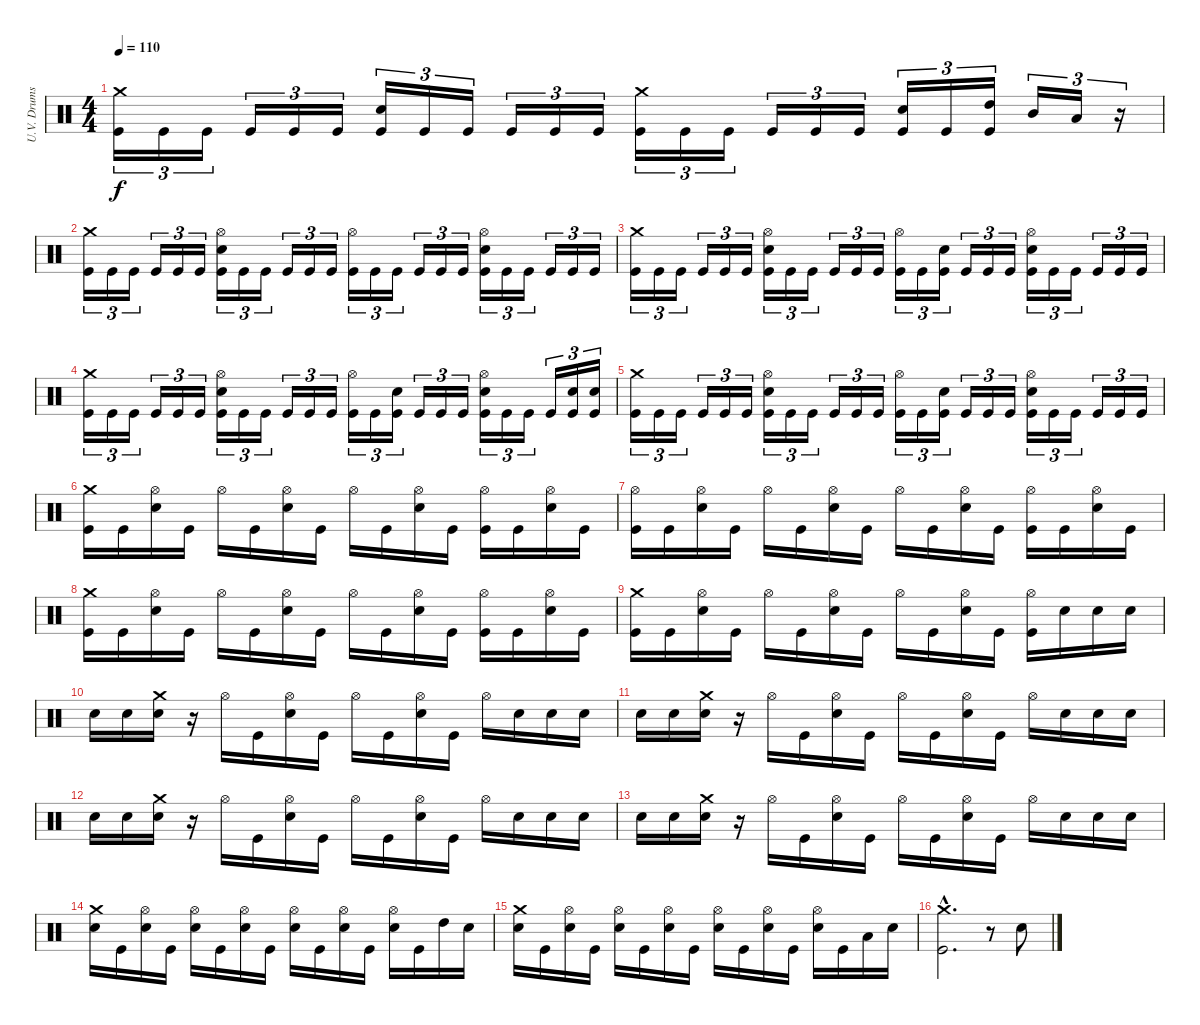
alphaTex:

\track ("U.V. Drums" "U.V. Drums") {instrument percussion}
\staff {score}
\articulation defaults
\ts (4 4)
\tempo 110
\clef neutral
\ks c
("Crash medium (hit)" "Kick (hit)").16{tu (3 2) dy f} "Kick (hit)".16{tu (3 2)} "Kick (hit)".16{tu (3 2)} "Kick (hit)".16{tu (3 2)} "Kick (hit)".16{tu (3 2)} "Kick (hit)".16{tu (3 2)} ("Electric Snare (hit)" "Kick (hit)").16{tu (3 2)} "Kick (hit)".16{tu (3 2)} "Kick (hit)".16{tu (3 2)} "Kick (hit)".16{tu (3 2)} "Kick (hit)".16{tu (3 2)} "Kick (hit)".16{tu (3 2)} ("Crash medium (hit)" "Kick (hit)").16{tu (3 2)} "Kick (hit)".16{tu (3 2)} "Kick (hit)".16{tu (3 2)} "Kick (hit)".16{tu (3 2)} "Kick (hit)".16{tu (3 2)} "Kick (hit)".16{tu (3 2)} ("Electric Snare (hit)" "Kick (hit)").16{tu (3 2)} "Kick (hit)".16{tu (3 2)} ("High Tom (hit)" "Kick (hit)").16{tu (3 2)} "Mid Tom (hit)".16{tu (3 2)} "Low Tom (hit)".16{tu (3 2)} r.16{tu (3 2)} |
("Crash medium (hit)" "Kick (hit)").16{tu (3 2)} "Kick (hit)".16{tu (3 2)} "Kick (hit)".16{tu (3 2)} "Kick (hit)".16{tu (3 2)} "Kick (hit)".16{tu (3 2)} "Kick (hit)".16{tu (3 2)} ("Hi-Hat (open)" "Electric Snare (hit)" "Kick (hit)").16{tu (3 2)} "Kick (hit)".16{tu (3 2)} "Kick (hit)".16{tu (3 2)} "Kick (hit)".16{tu (3 2)} "Kick (hit)".16{tu (3 2)} "Kick (hit)".16{tu (3 2)} ("Hi-Hat (open)" "Kick (hit)").16{tu (3 2)} "Kick (hit)".16{tu (3 2)} "Kick (hit)".16{tu (3 2)} "Kick (hit)".16{tu (3 2)} "Kick (hit)".16{tu (3 2)} "Kick (hit)".16{tu (3 2)} ("Hi-Hat (open)" "Electric Snare (hit)" "Kick (hit)").16{tu (3 2)} "Kick (hit)".16{tu (3 2)} "Kick (hit)".16{tu (3 2)} "Kick (hit)".16{tu (3 2)} "Kick (hit)".16{tu (3 2)} "Kick (hit)".16{tu (3 2)} |
("Crash medium (hit)" "Kick (hit)").16{tu (3 2)} "Kick (hit)".16{tu (3 2)} "Kick (hit)".16{tu (3 2)} "Kick (hit)".16{tu (3 2)} "Kick (hit)".16{tu (3 2)} "Kick (hit)".16{tu (3 2)} ("Hi-Hat (open)" "Electric Snare (hit)" "Kick (hit)").16{tu (3 2)} "Kick (hit)".16{tu (3 2)} "Kick (hit)".16{tu (3 2)} "Kick (hit)".16{tu (3 2)} "Kick (hit)".16{tu (3 2)} "Kick (hit)".16{tu (3 2)} ("Hi-Hat (open)" "Kick (hit)").16{tu (3 2)} "Kick (hit)".16{tu (3 2)} ("Electric Snare (hit)" "Kick (hit)").16{tu (3 2)} "Kick (hit)".16{tu (3 2)} "Kick (hit)".16{tu (3 2)} "Kick (hit)".16{tu (3 2)} ("Hi-Hat (open)" "Electric Snare (hit)" "Kick (hit)").16{tu (3 2)} "Kick (hit)".16{tu (3 2)} "Kick (hit)".16{tu (3 2)} "Kick (hit)".16{tu (3 2)} "Kick (hit)".16{tu (3 2)} "Kick (hit)".16{tu (3 2)} |
("Crash medium (hit)" "Kick (hit)").16{tu (3 2)} "Kick (hit)".16{tu (3 2)} "Kick (hit)".16{tu (3 2)} "Kick (hit)".16{tu (3 2)} "Kick (hit)".16{tu (3 2)} "Kick (hit)".16{tu (3 2)} ("Hi-Hat (open)" "Electric Snare (hit)" "Kick (hit)").16{tu (3 2)} "Kick (hit)".16{tu (3 2)} "Kick (hit)".16{tu (3 2)} "Kick (hit)".16{tu (3 2)} "Kick (hit)".16{tu (3 2)} "Kick (hit)".16{tu (3 2)} ("Hi-Hat (open)" "Kick (hit)").16{tu (3 2)} "Kick (hit)".16{tu (3 2)} ("Electric Snare (hit)" "Kick (hit)").16{tu (3 2)} "Kick (hit)".16{tu (3 2)} "Kick (hit)".16{tu (3 2)} "Kick (hit)".16{tu (3 2)} ("Hi-Hat (open)" "Electric Snare (hit)" "Kick (hit)").16{tu (3 2)} "Kick (hit)".16{tu (3 2)} "Kick (hit)".16{tu (3 2)} "Kick (hit)".16{tu (3 2)} ("Electric Snare (hit)" "Kick (hit)").16{tu (3 2)} ("Electric Snare (hit)" "Kick (hit)").16{tu (3 2)} |
("Crash medium (hit)" "Kick (hit)").16{tu (3 2)} "Kick (hit)".16{tu (3 2)} "Kick (hit)".16{tu (3 2)} "Kick (hit)".16{tu (3 2)} "Kick (hit)".16{tu (3 2)} "Kick (hit)".16{tu (3 2)} ("Hi-Hat (open)" "Electric Snare (hit)" "Kick (hit)").16{tu (3 2)} "Kick (hit)".16{tu (3 2)} "Kick (hit)".16{tu (3 2)} "Kick (hit)".16{tu (3 2)} "Kick (hit)".16{tu (3 2)} "Kick (hit)".16{tu (3 2)} ("Hi-Hat (open)" "Kick (hit)").16{tu (3 2)} "Kick (hit)".16{tu (3 2)} ("Electric Snare (hit)" "Kick (hit)").16{tu (3 2)} "Kick (hit)".16{tu (3 2)} "Kick (hit)".16{tu (3 2)} "Kick (hit)".16{tu (3 2)} ("Hi-Hat (open)" "Electric Snare (hit)" "Kick (hit)").16{tu (3 2)} "Kick (hit)".16{tu (3 2)} "Kick (hit)".16{tu (3 2)} "Kick (hit)".16{tu (3 2)} "Kick (hit)".16{tu (3 2)} "Kick (hit)".16{tu (3 2)} |
("Crash medium (hit)" "Kick (hit)").16 "Kick (hit)".16 ("Hi-Hat (open)" "Electric Snare (hit)").16 "Kick (hit)".16 "Hi-Hat (open)".16 "Kick (hit)".16 ("Hi-Hat (open)" "Electric Snare (hit)").16 "Kick (hit)".16 "Hi-Hat (open)".16 "Kick (hit)".16 ("Hi-Hat (open)" "Electric Snare (hit)").16 "Kick (hit)".16 ("Hi-Hat (open)" "Kick (hit)").16 "Kick (hit)".16 ("Hi-Hat (open)" "Electric Snare (hit)").16 "Kick (hit)".16 |
("Hi-Hat (open)" "Kick (hit)").16 "Kick (hit)".16 ("Hi-Hat (open)" "Electric Snare (hit)").16 "Kick (hit)".16 "Hi-Hat (open)".16 "Kick (hit)".16 ("Hi-Hat (open)" "Electric Snare (hit)").16 "Kick (hit)".16 "Hi-Hat (open)".16 "Kick (hit)".16 ("Hi-Hat (open)" "Electric Snare (hit)").16 "Kick (hit)".16 ("Hi-Hat (open)" "Kick (hit)").16 "Kick (hit)".16 ("Hi-Hat (open)" "Electric Snare (hit)").16 "Kick (hit)".16 |
("Crash medium (hit)" "Kick (hit)").16 "Kick (hit)".16 ("Hi-Hat (open)" "Electric Snare (hit)").16 "Kick (hit)".16 "Hi-Hat (open)".16 "Kick (hit)".16 ("Hi-Hat (open)" "Electric Snare (hit)").16 "Kick (hit)".16 "Hi-Hat (open)".16 "Kick (hit)".16 ("Hi-Hat (open)" "Electric Snare (hit)").16 "Kick (hit)".16 ("Hi-Hat (open)" "Kick (hit)").16 "Kick (hit)".16 ("Hi-Hat (open)" "Electric Snare (hit)").16 "Kick (hit)".16 |
("Crash medium (hit)" "Kick (hit)").16 "Kick (hit)".16 ("Hi-Hat (open)" "Electric Snare (hit)").16 "Kick (hit)".16 "Hi-Hat (open)".16 "Kick (hit)".16 ("Hi-Hat (open)" "Electric Snare (hit)").16 "Kick (hit)".16 "Hi-Hat (open)".16 "Kick (hit)".16 ("Hi-Hat (open)" "Electric Snare (hit)").16 "Kick (hit)".16 ("Hi-Hat (open)" "Kick (hit)").16 "Electric Snare (hit)".16 "Electric Snare (hit)".16 "Electric Snare (hit)".16 |
"Electric Snare (hit)".16 "Electric Snare (hit)".16 ("Crash medium (hit)" "Electric Snare (hit)").16 r.16 "Hi-Hat (open)".16 "Kick (hit)".16 ("Hi-Hat (open)" "Electric Snare (hit)").16 "Kick (hit)".16 "Hi-Hat (open)".16 "Kick (hit)".16 ("Hi-Hat (open)" "Electric Snare (hit)").16 "Kick (hit)".16 "Hi-Hat (open)".16 "Electric Snare (hit)".16 "Electric Snare (hit)".16 "Electric Snare (hit)".16 |
"Electric Snare (hit)".16 "Electric Snare (hit)".16 ("Crash medium (hit)" "Electric Snare (hit)").16 r.16 "Hi-Hat (open)".16 "Kick (hit)".16 ("Hi-Hat (open)" "Electric Snare (hit)").16 "Kick (hit)".16 "Hi-Hat (open)".16 "Kick (hit)".16 ("Hi-Hat (open)" "Electric Snare (hit)").16 "Kick (hit)".16 "Hi-Hat (open)".16 "Electric Snare (hit)".16 "Electric Snare (hit)".16 "Electric Snare (hit)".16 |
"Electric Snare (hit)".16 "Electric Snare (hit)".16 ("Crash medium (hit)" "Electric Snare (hit)").16 r.16 "Hi-Hat (open)".16 "Kick (hit)".16 ("Hi-Hat (open)" "Electric Snare (hit)").16 "Kick (hit)".16 "Hi-Hat (open)".16 "Kick (hit)".16 ("Hi-Hat (open)" "Electric Snare (hit)").16 "Kick (hit)".16 "Hi-Hat (open)".16 "Electric Snare (hit)".16 "Electric Snare (hit)".16 "Electric Snare (hit)".16 |
"Electric Snare (hit)".16 "Electric Snare (hit)".16 ("Crash medium (hit)" "Electric Snare (hit)").16 r.16 "Hi-Hat (open)".16 "Kick (hit)".16 ("Hi-Hat (open)" "Electric Snare (hit)").16 "Kick (hit)".16 "Hi-Hat (open)".16 "Kick (hit)".16 ("Hi-Hat (open)" "Electric Snare (hit)").16 "Kick (hit)".16 "Hi-Hat (open)".16 "Electric Snare (hit)".16 "Electric Snare (hit)".16 "Electric Snare (hit)".16 |
("Crash medium (hit)" "Electric Snare (hit)").16 "Kick (hit)".16 ("Hi-Hat (open)" "Electric Snare (hit)").16 "Kick (hit)".16 ("Hi-Hat (open)" "Electric Snare (hit)").16 "Kick (hit)".16 ("Hi-Hat (open)" "Electric Snare (hit)").16 "Kick (hit)".16 ("Hi-Hat (open)" "Electric Snare (hit)").16 "Kick (hit)".16 ("Hi-Hat (open)" "Electric Snare (hit)").16 "Kick (hit)".16 ("Hi-Hat (open)" "Electric Snare (hit)").16 "Kick (hit)".16 "High Tom (hit)".16 "Electric Snare (hit)".16 |
("Crash medium (hit)" "Electric Snare (hit)").16 "Kick (hit)".16 ("Hi-Hat (open)" "Electric Snare (hit)").16 "Kick (hit)".16 ("Hi-Hat (open)" "Electric Snare (hit)").16 "Kick (hit)".16 ("Hi-Hat (open)" "Electric Snare (hit)").16 "Kick (hit)".16 ("Hi-Hat (open)" "Electric Snare (hit)").16 "Kick (hit)".16 ("Hi-Hat (open)" "Electric Snare (hit)").16 "Kick (hit)".16 ("Hi-Hat (open)" "Electric Snare (hit)").16 "Kick (hit)".16 "Low Tom (hit)".16 "Electric Snare (hit)".16 |
("Crash medium (hit)"{hac} "Kick (hit)"{hac}).2{d} r.8 "Electric Snare (hit)".8
